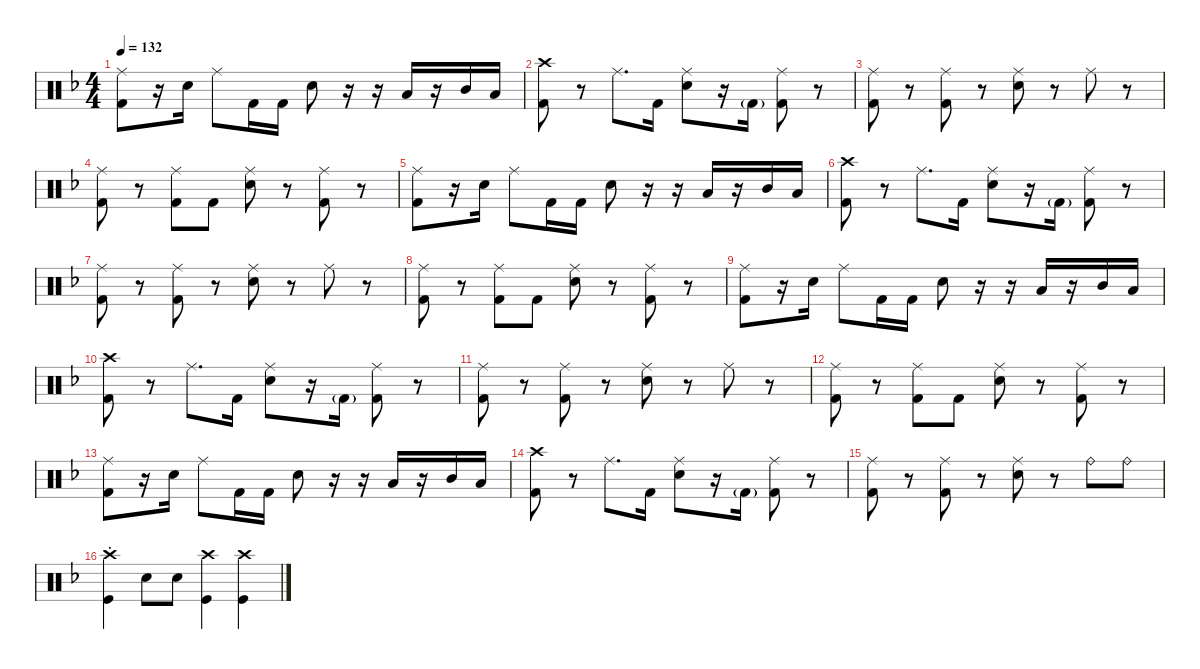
\defaultSystemsLayout 4
\hideDynamics
\bracketExtendMode nobrackets
\singleTrackTrackNamePolicy hidden
\multiTrackTrackNamePolicy hidden
\firstSystemTrackNameMode fullname
\firstSystemTrackNameOrientation horizontal
\otherSystemsTrackNameOrientation horizontal
\track ("Drums" "drm.") {instrument percussion}
\staff {score}
\articulation defaults
\ts (4 4)
\tempo 132
\clef neutral
\ks dminor
("Ride (middle)"{acc forcenatural} "Kick (hit) 2"{acc forcenatural}).8{dy f beam Down} r.16{beam Down} "Snare (hit) 2"{acc forcenatural}.16{beam Down} "Ride (middle)"{acc forcenatural}.8{beam Down} "Kick (hit) 2"{acc forcenatural}.16{beam Down} "Kick (hit) 2"{acc forcenatural}.16{beam Down} "Snare (hit) 2"{acc forcenatural}.8{beam Down} r.16{beam Down} r.16{beam Down} "Low Tom (hit)"{acc forcenatural}.16{beam Up} r.16{beam Up} "Mid Tom (hit)"{acc forcenatural}.16{beam Up} "Low Tom (hit)"{acc forcenatural}.16{beam Up} |
("Crash high (hit)"{acc forcenatural} "Kick (hit) 2"{acc forcenatural}).8{beam Down} r.8{beam Down} "Ride (middle)"{acc forcenatural}.8{d beam Down} "Kick (hit) 2"{acc forcenatural}.16{beam Down} ("Ride (middle)"{acc forcenatural} "Snare (hit) 2"{acc forcenatural}).8{beam Down} r.16{beam Down} "Kick (hit) 2"{g acc forcenatural}.16{dy mf beam Down} ("Ride (middle)"{acc forcenatural} "Kick (hit) 2"{acc forcenatural}).8{dy f beam Down} r.8{beam Down} |
("Ride (middle)"{acc forcenatural} "Kick (hit) 2"{acc forcenatural}).8{beam Down} r.8{beam Down} ("Ride (middle)"{acc forcenatural} "Kick (hit) 2"{acc forcenatural}).8{beam Down} r.8{beam Down} ("Ride (middle)"{acc forcenatural} "Snare (hit) 2"{acc forcenatural}).8{beam Down} r.8{beam Down} "Ride (middle)"{acc forcenatural}.8{beam Down} r.8{beam Down} |
("Ride (middle)"{acc forcenatural} "Kick (hit) 2"{acc forcenatural}).8{beam Down} r.8{beam Down} ("Ride (middle)"{acc forcenatural} "Kick (hit) 2"{acc forcenatural}).8{beam Down} "Kick (hit) 2"{acc forcenatural}.8{beam Down} ("Ride (middle)"{acc forcenatural} "Snare (hit) 2"{acc forcenatural}).8{beam Down} r.8{beam Down} ("Ride (middle)"{acc forcenatural} "Kick (hit) 2"{acc forcenatural}).8{beam Down} r.8{beam Down} |
("Ride (middle)"{acc forcenatural} "Kick (hit) 2"{acc forcenatural}).8{beam Down} r.16{beam Down} "Snare (hit) 2"{acc forcenatural}.16{beam Down} "Ride (middle)"{acc forcenatural}.8{beam Down} "Kick (hit) 2"{acc forcenatural}.16{beam Down} "Kick (hit) 2"{acc forcenatural}.16{beam Down} "Snare (hit) 2"{acc forcenatural}.8{beam Down} r.16{beam Down} r.16{beam Down} "Low Tom (hit)"{acc forcenatural}.16{beam Up} r.16{beam Up} "Mid Tom (hit)"{acc forcenatural}.16{beam Up} "Low Tom (hit)"{acc forcenatural}.16{beam Up} |
("Crash high (hit)"{acc forcenatural} "Kick (hit) 2"{acc forcenatural}).8{beam Down} r.8{beam Down} "Ride (middle)"{acc forcenatural}.8{d beam Down} "Kick (hit) 2"{acc forcenatural}.16{beam Down} ("Ride (middle)"{acc forcenatural} "Snare (hit) 2"{acc forcenatural}).8{beam Down} r.16{beam Down} "Kick (hit) 2"{g acc forcenatural}.16{dy mf beam Down} ("Ride (middle)"{acc forcenatural} "Kick (hit) 2"{acc forcenatural}).8{dy f beam Down} r.8{beam Down} |
("Ride (middle)"{acc forcenatural} "Kick (hit) 2"{acc forcenatural}).8{beam Down} r.8{beam Down} ("Ride (middle)"{acc forcenatural} "Kick (hit) 2"{acc forcenatural}).8{beam Down} r.8{beam Down} ("Ride (middle)"{acc forcenatural} "Snare (hit) 2"{acc forcenatural}).8{beam Down} r.8{beam Down} "Ride (middle)"{acc forcenatural}.8{beam Down} r.8{beam Down} |
("Ride (middle)"{acc forcenatural} "Kick (hit) 2"{acc forcenatural}).8{beam Down} r.8{beam Down} ("Ride (middle)"{acc forcenatural} "Kick (hit) 2"{acc forcenatural}).8{beam Down} "Kick (hit) 2"{acc forcenatural}.8{beam Down} ("Ride (middle)"{acc forcenatural} "Snare (hit) 2"{acc forcenatural}).8{beam Down} r.8{beam Down} ("Ride (middle)"{acc forcenatural} "Kick (hit) 2"{acc forcenatural}).8{beam Down} r.8{beam Down} |
("Ride (middle)"{acc forcenatural} "Kick (hit) 2"{acc forcenatural}).8{beam Down} r.16{beam Down} "Snare (hit) 2"{acc forcenatural}.16{beam Down} "Ride (middle)"{acc forcenatural}.8{beam Down} "Kick (hit) 2"{acc forcenatural}.16{beam Down} "Kick (hit) 2"{acc forcenatural}.16{beam Down} "Snare (hit) 2"{acc forcenatural}.8{beam Down} r.16{beam Down} r.16{beam Down} "Low Tom (hit)"{acc forcenatural}.16{beam Up} r.16{beam Up} "Mid Tom (hit)"{acc forcenatural}.16{beam Up} "Low Tom (hit)"{acc forcenatural}.16{beam Up} |
("Crash high (hit)"{acc forcenatural} "Kick (hit) 2"{acc forcenatural}).8{beam Down} r.8{beam Down} "Ride (middle)"{acc forcenatural}.8{d beam Down} "Kick (hit) 2"{acc forcenatural}.16{beam Down} ("Ride (middle)"{acc forcenatural} "Snare (hit) 2"{acc forcenatural}).8{beam Down} r.16{beam Down} "Kick (hit) 2"{g acc forcenatural}.16{dy mf beam Down} ("Ride (middle)"{acc forcenatural} "Kick (hit) 2"{acc forcenatural}).8{dy f beam Down} r.8{beam Down} |
("Ride (middle)"{acc forcenatural} "Kick (hit) 2"{acc forcenatural}).8{beam Down} r.8{beam Down} ("Ride (middle)"{acc forcenatural} "Kick (hit) 2"{acc forcenatural}).8{beam Down} r.8{beam Down} ("Ride (middle)"{acc forcenatural} "Snare (hit) 2"{acc forcenatural}).8{beam Down} r.8{beam Down} "Ride (middle)"{acc forcenatural}.8{beam Down} r.8{beam Down} |
("Ride (middle)"{acc forcenatural} "Kick (hit) 2"{acc forcenatural}).8{beam Down} r.8{beam Down} ("Ride (middle)"{acc forcenatural} "Kick (hit) 2"{acc forcenatural}).8{beam Down} "Kick (hit) 2"{acc forcenatural}.8{beam Down} ("Ride (middle)"{acc forcenatural} "Snare (hit) 2"{acc forcenatural}).8{beam Down} r.8{beam Down} ("Ride (middle)"{acc forcenatural} "Kick (hit) 2"{acc forcenatural}).8{beam Down} r.8{beam Down} |
("Ride (middle)"{acc forcenatural} "Kick (hit) 2"{acc forcenatural}).8{beam Down} r.16{beam Down} "Snare (hit) 2"{acc forcenatural}.16{beam Down} "Ride (middle)"{acc forcenatural}.8{beam Down} "Kick (hit) 2"{acc forcenatural}.16{beam Down} "Kick (hit) 2"{acc forcenatural}.16{beam Down} "Snare (hit) 2"{acc forcenatural}.8{beam Down} r.16{beam Down} r.16{beam Down} "Low Tom (hit)"{acc forcenatural}.16{beam Up} r.16{beam Up} "Mid Tom (hit)"{acc forcenatural}.16{beam Up} "Low Tom (hit)"{acc forcenatural}.16{beam Up} |
("Crash high (hit)"{acc forcenatural} "Kick (hit) 2"{acc forcenatural}).8{beam Down} r.8{beam Down} "Ride (middle)"{acc forcenatural}.8{d beam Down} "Kick (hit) 2"{acc forcenatural}.16{beam Down} ("Ride (middle)"{acc forcenatural} "Snare (hit) 2"{acc forcenatural}).8{beam Down} r.16{beam Down} "Kick (hit) 2"{g acc forcenatural}.16{dy mf beam Down} ("Ride (middle)"{acc forcenatural} "Kick (hit) 2"{acc forcenatural}).8{dy f beam Down} r.8{beam Down} |
("Ride (middle)"{acc forcenatural} "Kick (hit) 2"{acc forcenatural}).8{beam Down} r.8{beam Down} ("Ride (middle)"{acc forcenatural} "Kick (hit) 2"{acc forcenatural}).8{beam Down} r.8{beam Down} ("Ride (middle)"{acc forcenatural} "Snare (hit) 2"{acc forcenatural}).8{beam Down} r.8{beam Down} "Ride (bell)"{acc forcenatural}.8{beam Down} "Ride (bell)"{acc forcenatural}.8{beam Down} |
("Kick (hit)"{acc forcenatural} "Crash high (hit)"{st acc forcenatural}).4{beam Down} "Snare (hit) 2"{acc forcenatural}.8{beam Down} "Snare (hit) 2"{acc forcenatural}.8{beam Down} ("Crash high (hit)"{acc forcenatural} "Kick (hit)"{acc forcenatural}).4{beam Down} ("Crash high (hit)"{acc forcenatural} "Kick (hit)"{acc forcenatural}).4{beam Down}
